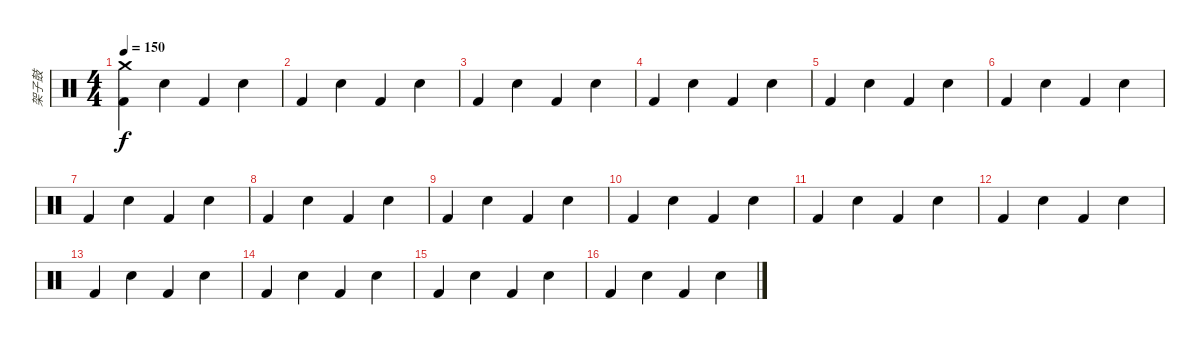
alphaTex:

\track ("架子鼓" "架子鼓") {instrument percussion}
\staff {score}
\articulation defaults
\ts (4 4)
\tempo 150
\clef neutral
\ks c
("Crash medium (hit)" "Kick (hit) 2").4{dy f} "Snare (hit) 2".4 "Kick (hit) 2".4 "Snare (hit) 2".4 |
"Kick (hit) 2".4 "Snare (hit) 2".4 "Kick (hit) 2".4 "Snare (hit) 2".4 |
"Kick (hit) 2".4 "Snare (hit) 2".4 "Kick (hit) 2".4 "Snare (hit) 2".4 |
"Kick (hit) 2".4 "Snare (hit) 2".4 "Kick (hit) 2".4 "Snare (hit) 2".4 |
"Kick (hit) 2".4 "Snare (hit) 2".4 "Kick (hit) 2".4 "Snare (hit) 2".4 |
"Kick (hit) 2".4 "Snare (hit) 2".4 "Kick (hit) 2".4 "Snare (hit) 2".4 |
"Kick (hit) 2".4 "Snare (hit) 2".4 "Kick (hit) 2".4 "Snare (hit) 2".4 |
"Kick (hit) 2".4 "Snare (hit) 2".4 "Kick (hit) 2".4 "Snare (hit) 2".4 |
"Kick (hit) 2".4 "Snare (hit) 2".4 "Kick (hit) 2".4 "Snare (hit) 2".4 |
"Kick (hit) 2".4 "Snare (hit) 2".4 "Kick (hit) 2".4 "Snare (hit) 2".4 |
"Kick (hit) 2".4 "Snare (hit) 2".4 "Kick (hit) 2".4 "Snare (hit) 2".4 |
"Kick (hit) 2".4 "Snare (hit) 2".4 "Kick (hit) 2".4 "Snare (hit) 2".4 |
"Kick (hit) 2".4 "Snare (hit) 2".4 "Kick (hit) 2".4 "Snare (hit) 2".4 |
"Kick (hit) 2".4 "Snare (hit) 2".4 "Kick (hit) 2".4 "Snare (hit) 2".4 |
"Kick (hit) 2".4 "Snare (hit) 2".4 "Kick (hit) 2".4 "Snare (hit) 2".4 |
"Kick (hit) 2".4 "Snare (hit) 2".4 "Kick (hit) 2".4 "Snare (hit) 2".4
